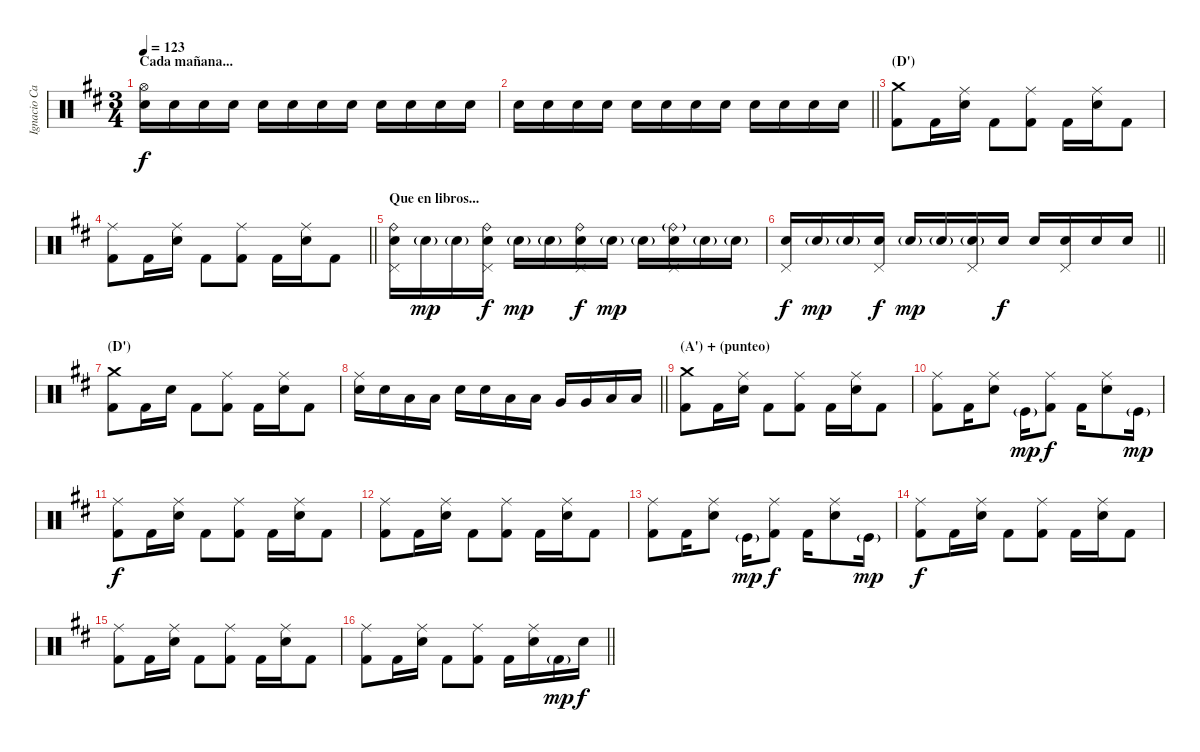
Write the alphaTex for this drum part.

\track ("Ignacio Cantera - Batería" "Ignacio Ca") {instrument percussion}
\staff {score}
\articulation defaults
\ts (3 4)
\section ("" "Cada mañana...")
\tempo 123
\clef neutral
\ks bminor
("Hi-Hat (open)" "Electric Snare (hit)").16{dy f} "Electric Snare (hit)".16 "Electric Snare (hit)".16 "Electric Snare (hit)".16 "Electric Snare (hit)".16 "Electric Snare (hit)".16 "Electric Snare (hit)".16 "Electric Snare (hit)".16 "Electric Snare (hit)".16 "Electric Snare (hit)".16 "Electric Snare (hit)".16 "Electric Snare (hit)".16 |
\barLineRight lightlight "Electric Snare (hit)".16 "Electric Snare (hit)".16 "Electric Snare (hit)".16 "Electric Snare (hit)".16 "Electric Snare (hit)".16 "Electric Snare (hit)".16 "Electric Snare (hit)".16 "Electric Snare (hit)".16 "Electric Snare (hit)".16 "Electric Snare (hit)".16 "Electric Snare (hit)".16 "Electric Snare (hit)".16
|
\section ("" "(D')")
("Crash medium (hit)" "Kick (hit) 2").8 "Kick (hit) 2".16 ("Ride (middle)" "Snare (hit) 2").16 "Kick (hit) 2".8 ("Ride (middle)" "Kick (hit) 2").8 "Kick (hit) 2".16 ("Ride (middle)" "Snare (hit) 2").16 "Kick (hit) 2".8 |
\barLineRight lightlight
("Ride (middle)" "Kick (hit) 2").8 "Kick (hit) 2".16 ("Ride (middle)" "Snare (hit) 2").16 "Kick (hit) 2".8 ("Ride (middle)" "Kick (hit) 2").8 "Kick (hit) 2".16 ("Ride (middle)" "Snare (hit) 2").16 "Kick (hit) 2".8 |
\section ("" "Que en libros...")
("Pedal Hi-Hat (hit)" "Snare (hit) 2" "Ride (bell)").16 "Snare (hit) 2"{g}.16{dy mp} "Snare (hit) 2"{g}.16 ("Pedal Hi-Hat (hit)" "Snare (hit) 2" "Ride (bell)").16{dy f} "Snare (hit) 2"{g}.16{dy mp} "Snare (hit) 2"{g}.16 ("Pedal Hi-Hat (hit)" "Snare (hit) 2" "Ride (bell)").16{dy f} "Snare (hit) 2"{g}.16{dy mp} "Snare (hit) 2"{g}.16 ("Pedal Hi-Hat (hit)" "Snare (hit) 2" "Ride (bell)"{g}).16 "Snare (hit) 2"{g}.16 "Snare (hit) 2"{g}.16 |
\barLineRight lightlight
("Pedal Hi-Hat (hit)" "Snare (hit) 2").16{dy f} "Snare (hit) 2"{g}.16{dy mp} "Snare (hit) 2"{g}.16 ("Pedal Hi-Hat (hit)" "Snare (hit) 2").16{dy f} "Snare (hit) 2"{g}.16{dy mp} "Snare (hit) 2"{g}.16 ("Pedal Hi-Hat (hit)" "Snare (hit) 2"{g}).16 "Snare (hit) 2".16{dy f} "Snare (hit) 2".16 ("Pedal Hi-Hat (hit)" "Snare (hit) 2").16 "Snare (hit) 2".16 "Snare (hit) 2".16 |
\section ("" "(D')")
("Crash medium (hit)" "Kick (hit) 2").8 "Kick (hit) 2".16 "Snare (hit) 2".16 "Kick (hit) 2".8 ("Ride (middle)" "Kick (hit) 2").8 "Kick (hit) 2".16 ("Ride (middle)" "Snare (hit) 2").16 "Kick (hit) 2".8 |
\barLineRight lightlight
("Ride (middle)" "Snare (hit) 2").16 "Snare (hit) 2".16 "Low Tom (hit)".16 "Low Tom (hit)".16 "Snare (hit) 2".16 "Snare (hit) 2".16 "Low Tom (hit)".16 "Low Tom (hit)".16 "Very Low Tom (hit)".16 "Very Low Tom (hit)".16 "Low Floor Tom (hit)".16 "Low Floor Tom (hit)".16 |
\section ("" "(A') + (punteo)  ")
("Crash medium (hit)" "Kick (hit) 2").8 "Kick (hit) 2".16 ("Ride (middle)" "Snare (hit) 2").16 "Kick (hit) 2".8 ("Ride (middle)" "Kick (hit) 2").8 "Kick (hit) 2".16 ("Ride (middle)" "Snare (hit) 2").16 "Kick (hit) 2".8 |
("Ride (middle)" "Kick (hit) 2").8 "Kick (hit) 2".16 ("Ride (middle)" "Snare (hit) 2").8 "Kick (hit)"{g}.16{dy mp} ("Ride (middle)" "Kick (hit) 2").8{dy f} "Kick (hit) 2".16 ("Ride (middle)" "Snare (hit) 2").8 "Kick (hit)"{g}.16{dy mp} |
("Ride (middle)" "Kick (hit) 2").8{dy f} "Kick (hit) 2".16 ("Ride (middle)" "Snare (hit) 2").16 "Kick (hit) 2".8 ("Ride (middle)" "Kick (hit) 2").8 "Kick (hit) 2".16 ("Ride (middle)" "Snare (hit) 2").16 "Kick (hit) 2".8 |
("Ride (middle)" "Kick (hit) 2").8 "Kick (hit) 2".16 ("Ride (middle)" "Snare (hit) 2").16 "Kick (hit) 2".8 ("Ride (middle)" "Kick (hit) 2").8 "Kick (hit) 2".16 ("Ride (middle)" "Snare (hit) 2").16 "Kick (hit) 2".8 |
("Ride (middle)" "Kick (hit) 2").8 "Kick (hit) 2".16 ("Ride (middle)" "Snare (hit) 2").8 "Kick (hit)"{g}.16{dy mp} ("Ride (middle)" "Kick (hit) 2").8{dy f} "Kick (hit) 2".16 ("Ride (middle)" "Snare (hit) 2").8 "Kick (hit)"{g}.16{dy mp} |
("Ride (middle)" "Kick (hit) 2").8{dy f} "Kick (hit) 2".16 ("Ride (middle)" "Snare (hit) 2").16 "Kick (hit) 2".8 ("Ride (middle)" "Kick (hit) 2").8 "Kick (hit) 2".16 ("Ride (middle)" "Snare (hit) 2").16 "Kick (hit) 2".8 |
("Ride (middle)" "Kick (hit) 2").8 "Kick (hit) 2".16 ("Ride (middle)" "Snare (hit) 2").16 "Kick (hit) 2".8 ("Ride (middle)" "Kick (hit) 2").8 "Kick (hit) 2".16 ("Ride (middle)" "Snare (hit) 2").16 "Kick (hit) 2".8 |
\barLineRight lightlight
("Ride (middle)" "Kick (hit) 2").8 "Kick (hit) 2".16 ("Ride (middle)" "Snare (hit) 2").16 "Kick (hit) 2".8 ("Ride (middle)" "Kick (hit) 2").8 "Kick (hit) 2".16 ("Ride (middle)" "Snare (hit) 2").16 "Kick (hit) 2"{g}.16{dy mp} "Snare (hit) 2".16{dy f}
